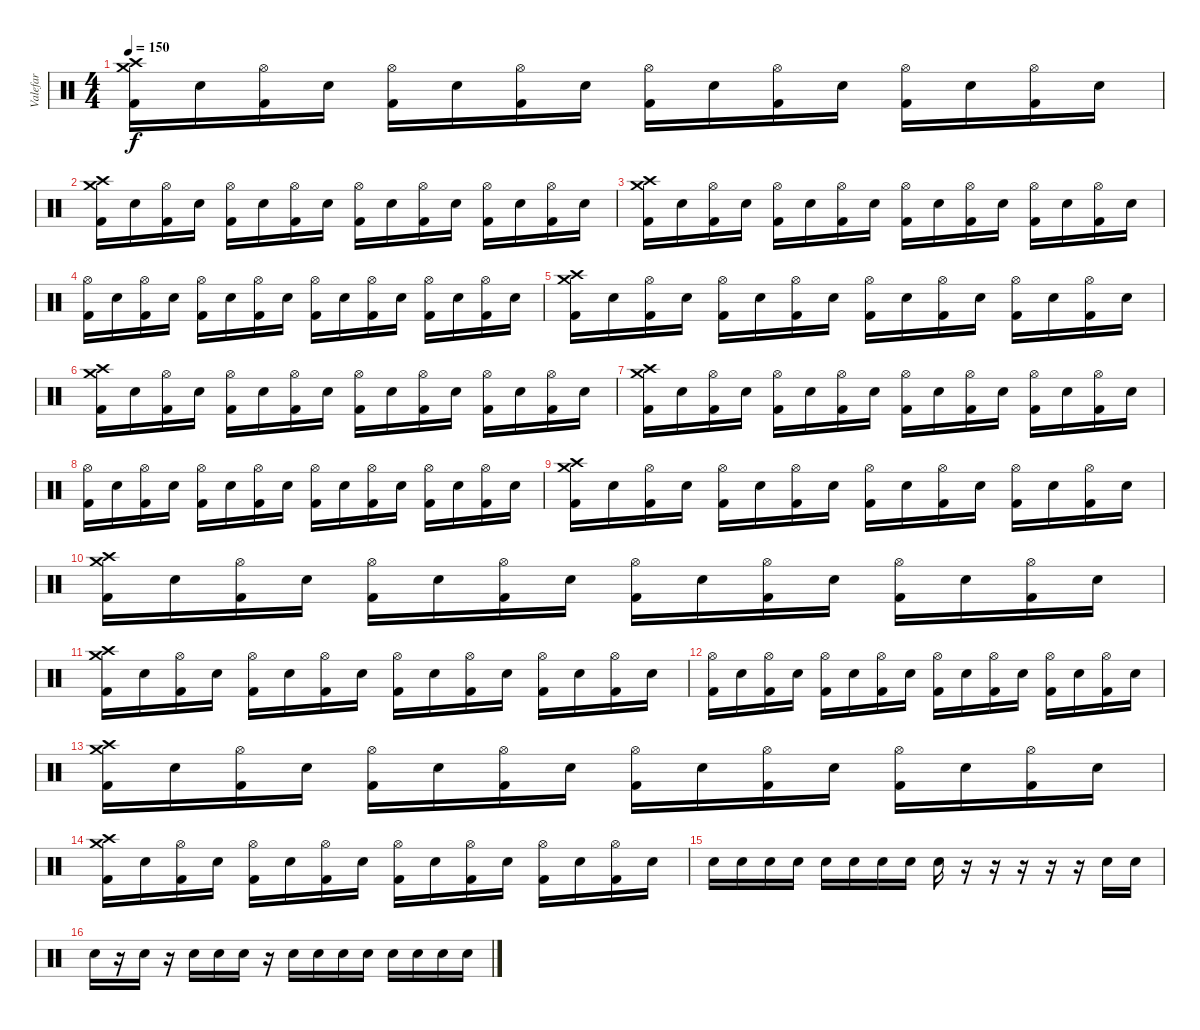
\track ("Valefar" "Valefar") {instrument percussion}
\staff {score}
\articulation defaults
\ts (4 4)
\tempo 150
\clef neutral
\ks c
("Crash medium (hit)" "Crash high (hit)" "Kick (hit) 2").16{dy f} "Electric Snare (hit)".16 ("Hi-Hat (open)" "Kick (hit) 2").16 "Electric Snare (hit)".16 ("Hi-Hat (open)" "Kick (hit) 2").16 "Electric Snare (hit)".16 ("Hi-Hat (open)" "Kick (hit) 2").16 "Electric Snare (hit)".16 ("Hi-Hat (open)" "Kick (hit) 2").16 "Electric Snare (hit)".16 ("Hi-Hat (open)" "Kick (hit) 2").16 "Electric Snare (hit)".16 ("Hi-Hat (open)" "Kick (hit) 2").16 "Electric Snare (hit)".16 ("Hi-Hat (open)" "Kick (hit) 2").16 "Electric Snare (hit)".16 |
("Crash medium (hit)" "Crash high (hit)" "Kick (hit) 2").16 "Electric Snare (hit)".16 ("Hi-Hat (open)" "Kick (hit) 2").16 "Electric Snare (hit)".16 ("Hi-Hat (open)" "Kick (hit) 2").16 "Electric Snare (hit)".16 ("Hi-Hat (open)" "Kick (hit) 2").16 "Electric Snare (hit)".16 ("Hi-Hat (open)" "Kick (hit) 2").16 "Electric Snare (hit)".16 ("Hi-Hat (open)" "Kick (hit) 2").16 "Electric Snare (hit)".16 ("Hi-Hat (open)" "Kick (hit) 2").16 "Electric Snare (hit)".16 ("Hi-Hat (open)" "Kick (hit) 2").16 "Electric Snare (hit)".16 |
("Crash medium (hit)" "Crash high (hit)" "Kick (hit) 2").16 "Electric Snare (hit)".16 ("Hi-Hat (open)" "Kick (hit) 2").16 "Electric Snare (hit)".16 ("Hi-Hat (open)" "Kick (hit) 2").16 "Electric Snare (hit)".16 ("Hi-Hat (open)" "Kick (hit) 2").16 "Electric Snare (hit)".16 ("Hi-Hat (open)" "Kick (hit) 2").16 "Electric Snare (hit)".16 ("Hi-Hat (open)" "Kick (hit) 2").16 "Electric Snare (hit)".16 ("Hi-Hat (open)" "Kick (hit) 2").16 "Electric Snare (hit)".16 ("Hi-Hat (open)" "Kick (hit) 2").16 "Electric Snare (hit)".16 |
("Hi-Hat (open)" "Kick (hit) 2").16 "Electric Snare (hit)".16 ("Hi-Hat (open)" "Kick (hit) 2").16 "Electric Snare (hit)".16 ("Hi-Hat (open)" "Kick (hit) 2").16 "Electric Snare (hit)".16 ("Hi-Hat (open)" "Kick (hit) 2").16 "Electric Snare (hit)".16 ("Hi-Hat (open)" "Kick (hit) 2").16 "Electric Snare (hit)".16 ("Hi-Hat (open)" "Kick (hit) 2").16 "Electric Snare (hit)".16 ("Hi-Hat (open)" "Kick (hit) 2").16 "Electric Snare (hit)".16 ("Hi-Hat (open)" "Kick (hit) 2").16 "Electric Snare (hit)".16 |
("Crash medium (hit)" "Crash high (hit)" "Kick (hit) 2").16 "Electric Snare (hit)".16 ("Hi-Hat (open)" "Kick (hit) 2").16 "Electric Snare (hit)".16 ("Hi-Hat (open)" "Kick (hit) 2").16 "Electric Snare (hit)".16 ("Hi-Hat (open)" "Kick (hit) 2").16 "Electric Snare (hit)".16 ("Hi-Hat (open)" "Kick (hit) 2").16 "Electric Snare (hit)".16 ("Hi-Hat (open)" "Kick (hit) 2").16 "Electric Snare (hit)".16 ("Hi-Hat (open)" "Kick (hit) 2").16 "Electric Snare (hit)".16 ("Hi-Hat (open)" "Kick (hit) 2").16 "Electric Snare (hit)".16 |
("Crash medium (hit)" "Crash high (hit)" "Kick (hit) 2").16 "Electric Snare (hit)".16 ("Hi-Hat (open)" "Kick (hit) 2").16 "Electric Snare (hit)".16 ("Hi-Hat (open)" "Kick (hit) 2").16 "Electric Snare (hit)".16 ("Hi-Hat (open)" "Kick (hit) 2").16 "Electric Snare (hit)".16 ("Hi-Hat (open)" "Kick (hit) 2").16 "Electric Snare (hit)".16 ("Hi-Hat (open)" "Kick (hit) 2").16 "Electric Snare (hit)".16 ("Hi-Hat (open)" "Kick (hit) 2").16 "Electric Snare (hit)".16 ("Hi-Hat (open)" "Kick (hit) 2").16 "Electric Snare (hit)".16 |
("Crash medium (hit)" "Crash high (hit)" "Kick (hit) 2").16 "Electric Snare (hit)".16 ("Hi-Hat (open)" "Kick (hit) 2").16 "Electric Snare (hit)".16 ("Hi-Hat (open)" "Kick (hit) 2").16 "Electric Snare (hit)".16 ("Hi-Hat (open)" "Kick (hit) 2").16 "Electric Snare (hit)".16 ("Hi-Hat (open)" "Kick (hit) 2").16 "Electric Snare (hit)".16 ("Hi-Hat (open)" "Kick (hit) 2").16 "Electric Snare (hit)".16 ("Hi-Hat (open)" "Kick (hit) 2").16 "Electric Snare (hit)".16 ("Hi-Hat (open)" "Kick (hit) 2").16 "Electric Snare (hit)".16 |
("Hi-Hat (open)" "Kick (hit) 2").16 "Electric Snare (hit)".16 ("Hi-Hat (open)" "Kick (hit) 2").16 "Electric Snare (hit)".16 ("Hi-Hat (open)" "Kick (hit) 2").16 "Electric Snare (hit)".16 ("Hi-Hat (open)" "Kick (hit) 2").16 "Electric Snare (hit)".16 ("Hi-Hat (open)" "Kick (hit) 2").16 "Electric Snare (hit)".16 ("Hi-Hat (open)" "Kick (hit) 2").16 "Electric Snare (hit)".16 ("Hi-Hat (open)" "Kick (hit) 2").16 "Electric Snare (hit)".16 ("Hi-Hat (open)" "Kick (hit) 2").16 "Electric Snare (hit)".16 |
("Crash medium (hit)" "Crash high (hit)" "Kick (hit) 2").16 "Electric Snare (hit)".16 ("Hi-Hat (open)" "Kick (hit) 2").16 "Electric Snare (hit)".16 ("Hi-Hat (open)" "Kick (hit) 2").16 "Electric Snare (hit)".16 ("Hi-Hat (open)" "Kick (hit) 2").16 "Electric Snare (hit)".16 ("Hi-Hat (open)" "Kick (hit) 2").16 "Electric Snare (hit)".16 ("Hi-Hat (open)" "Kick (hit) 2").16 "Electric Snare (hit)".16 ("Hi-Hat (open)" "Kick (hit) 2").16 "Electric Snare (hit)".16 ("Hi-Hat (open)" "Kick (hit) 2").16 "Electric Snare (hit)".16 |
("Crash medium (hit)" "Crash high (hit)" "Kick (hit) 2").16 "Electric Snare (hit)".16 ("Hi-Hat (open)" "Kick (hit) 2").16 "Electric Snare (hit)".16 ("Hi-Hat (open)" "Kick (hit) 2").16 "Electric Snare (hit)".16 ("Hi-Hat (open)" "Kick (hit) 2").16 "Electric Snare (hit)".16 ("Hi-Hat (open)" "Kick (hit) 2").16 "Electric Snare (hit)".16 ("Hi-Hat (open)" "Kick (hit) 2").16 "Electric Snare (hit)".16 ("Hi-Hat (open)" "Kick (hit) 2").16 "Electric Snare (hit)".16 ("Hi-Hat (open)" "Kick (hit) 2").16 "Electric Snare (hit)".16 |
("Crash medium (hit)" "Crash high (hit)" "Kick (hit) 2").16 "Electric Snare (hit)".16 ("Hi-Hat (open)" "Kick (hit) 2").16 "Electric Snare (hit)".16 ("Hi-Hat (open)" "Kick (hit) 2").16 "Electric Snare (hit)".16 ("Hi-Hat (open)" "Kick (hit) 2").16 "Electric Snare (hit)".16 ("Hi-Hat (open)" "Kick (hit) 2").16 "Electric Snare (hit)".16 ("Hi-Hat (open)" "Kick (hit) 2").16 "Electric Snare (hit)".16 ("Hi-Hat (open)" "Kick (hit) 2").16 "Electric Snare (hit)".16 ("Hi-Hat (open)" "Kick (hit) 2").16 "Electric Snare (hit)".16 |
("Hi-Hat (open)" "Kick (hit) 2").16 "Electric Snare (hit)".16 ("Hi-Hat (open)" "Kick (hit) 2").16 "Electric Snare (hit)".16 ("Hi-Hat (open)" "Kick (hit) 2").16 "Electric Snare (hit)".16 ("Hi-Hat (open)" "Kick (hit) 2").16 "Electric Snare (hit)".16 ("Hi-Hat (open)" "Kick (hit) 2").16 "Electric Snare (hit)".16 ("Hi-Hat (open)" "Kick (hit) 2").16 "Electric Snare (hit)".16 ("Hi-Hat (open)" "Kick (hit) 2").16 "Electric Snare (hit)".16 ("Hi-Hat (open)" "Kick (hit) 2").16 "Electric Snare (hit)".16 |
("Crash medium (hit)" "Crash high (hit)" "Kick (hit) 2").16 "Electric Snare (hit)".16 ("Hi-Hat (open)" "Kick (hit) 2").16 "Electric Snare (hit)".16 ("Hi-Hat (open)" "Kick (hit) 2").16 "Electric Snare (hit)".16 ("Hi-Hat (open)" "Kick (hit) 2").16 "Electric Snare (hit)".16 ("Hi-Hat (open)" "Kick (hit) 2").16 "Electric Snare (hit)".16 ("Hi-Hat (open)" "Kick (hit) 2").16 "Electric Snare (hit)".16 ("Hi-Hat (open)" "Kick (hit) 2").16 "Electric Snare (hit)".16 ("Hi-Hat (open)" "Kick (hit) 2").16 "Electric Snare (hit)".16 |
("Crash medium (hit)" "Crash high (hit)" "Kick (hit) 2").16 "Electric Snare (hit)".16 ("Hi-Hat (open)" "Kick (hit) 2").16 "Electric Snare (hit)".16 ("Hi-Hat (open)" "Kick (hit) 2").16 "Electric Snare (hit)".16 ("Hi-Hat (open)" "Kick (hit) 2").16 "Electric Snare (hit)".16 ("Hi-Hat (open)" "Kick (hit) 2").16 "Electric Snare (hit)".16 ("Hi-Hat (open)" "Kick (hit) 2").16 "Electric Snare (hit)".16 ("Hi-Hat (open)" "Kick (hit) 2").16 "Electric Snare (hit)".16 ("Hi-Hat (open)" "Kick (hit) 2").16 "Electric Snare (hit)".16 |
"Electric Snare (hit)".16 "Electric Snare (hit)".16 "Electric Snare (hit)".16 "Electric Snare (hit)".16 "Electric Snare (hit)".16 "Electric Snare (hit)".16 "Electric Snare (hit)".16 "Electric Snare (hit)".16 "Electric Snare (hit)".16 r.16 r.16 r.16 r.16 r.16 "Electric Snare (hit)".16 "Electric Snare (hit)".16 |
"Electric Snare (hit)".16 r.16 "Electric Snare (hit)".16 r.16 "Electric Snare (hit)".16 "Electric Snare (hit)".16 "Electric Snare (hit)".16 r.16 "Electric Snare (hit)".16 "Electric Snare (hit)".16 "Electric Snare (hit)".16 "Electric Snare (hit)".16 "Electric Snare (hit)".16 "Electric Snare (hit)".16 "Electric Snare (hit)".16 "Electric Snare (hit)".16
